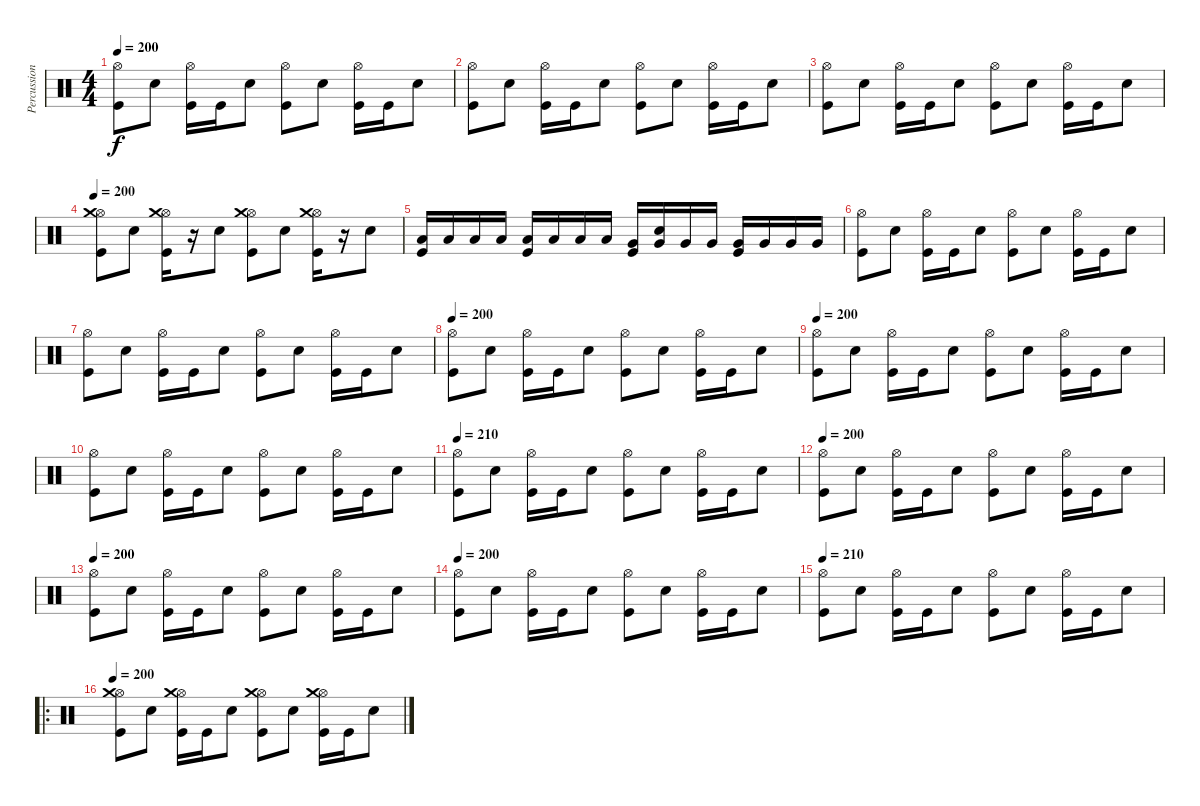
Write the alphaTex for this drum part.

\track ("Percussion" "Percussion") {instrument percussion}
\staff {score}
\articulation defaults
\ts (4 4)
\tempo 200
\clef neutral
\ks c
("Hi-Hat (open)" "Kick (hit)").8{dy f} "Electric Snare (hit)".8 ("Hi-Hat (open)" "Kick (hit)").16 "Kick (hit)".16 "Electric Snare (hit)".8 ("Hi-Hat (open)" "Kick (hit)").8 "Electric Snare (hit)".8 ("Hi-Hat (open)" "Kick (hit)").16 "Kick (hit)".16 "Electric Snare (hit)".8 |
("Hi-Hat (open)" "Kick (hit)").8 "Electric Snare (hit)".8 ("Hi-Hat (open)" "Kick (hit)").16 "Kick (hit)".16 "Electric Snare (hit)".8 ("Hi-Hat (open)" "Kick (hit)").8 "Electric Snare (hit)".8 ("Hi-Hat (open)" "Kick (hit)").16 "Kick (hit)".16 "Electric Snare (hit)".8 |
("Hi-Hat (open)" "Kick (hit)").8 "Electric Snare (hit)".8 ("Hi-Hat (open)" "Kick (hit)").16 "Kick (hit)".16 "Electric Snare (hit)".8 ("Hi-Hat (open)" "Kick (hit)").8 "Electric Snare (hit)".8 ("Hi-Hat (open)" "Kick (hit)").16 "Kick (hit)".16 "Electric Snare (hit)".8 |
\tempo 200
("Hi-Hat (open)" "Kick (hit)" "Crash medium (hit)").8 "Electric Snare (hit)".8 ("Hi-Hat (open)" "Kick (hit)" "Crash medium (hit)").16 r.16 "Electric Snare (hit)".8 ("Hi-Hat (open)" "Kick (hit)" "Crash medium (hit)").8 "Electric Snare (hit)".8 ("Hi-Hat (open)" "Kick (hit)" "Crash medium (hit)").16 r.16 "Electric Snare (hit)".8 |
("Low Tom (hit)" "Kick (hit)").16 "Low Tom (hit)".16 "Low Tom (hit)".16 "Low Tom (hit)".16 ("Low Tom (hit)" "Kick (hit)").16 "Low Tom (hit)".16 "Low Tom (hit)".16 "Low Tom (hit)".16 ("Very Low Tom (hit)" "Kick (hit)").16 ("Very Low Tom (hit)" "Snare (hit)").16 "Very Low Tom (hit)".16 "Very Low Tom (hit)".16 ("Very Low Tom (hit)" "Kick (hit)").16 "Very Low Tom (hit)".16 "Very Low Tom (hit)".16 "Very Low Tom (hit)".16 |
("Hi-Hat (open)" "Kick (hit)").8 "Electric Snare (hit)".8 ("Hi-Hat (open)" "Kick (hit)").16 "Kick (hit)".16 "Electric Snare (hit)".8 ("Hi-Hat (open)" "Kick (hit)").8 "Electric Snare (hit)".8 ("Hi-Hat (open)" "Kick (hit)").16 "Kick (hit)".16 "Electric Snare (hit)".8 |
("Hi-Hat (open)" "Kick (hit)").8 "Electric Snare (hit)".8 ("Hi-Hat (open)" "Kick (hit)").16 "Kick (hit)".16 "Electric Snare (hit)".8 ("Hi-Hat (open)" "Kick (hit)").8 "Electric Snare (hit)".8 ("Hi-Hat (open)" "Kick (hit)").16 "Kick (hit)".16 "Electric Snare (hit)".8 |
\tempo 200
("Hi-Hat (open)" "Kick (hit)").8 "Electric Snare (hit)".8 ("Hi-Hat (open)" "Kick (hit)").16 "Kick (hit)".16 "Electric Snare (hit)".8 ("Hi-Hat (open)" "Kick (hit)").8 "Electric Snare (hit)".8 ("Hi-Hat (open)" "Kick (hit)").16 "Kick (hit)".16 "Electric Snare (hit)".8 |
\tempo 200
("Hi-Hat (open)" "Kick (hit)").8 "Electric Snare (hit)".8 ("Hi-Hat (open)" "Kick (hit)").16 "Kick (hit)".16 "Electric Snare (hit)".8 ("Hi-Hat (open)" "Kick (hit)").8 "Electric Snare (hit)".8 ("Hi-Hat (open)" "Kick (hit)").16 "Kick (hit)".16 "Electric Snare (hit)".8 |
("Hi-Hat (open)" "Kick (hit)").8 "Electric Snare (hit)".8 ("Hi-Hat (open)" "Kick (hit)").16 "Kick (hit)".16 "Electric Snare (hit)".8 ("Hi-Hat (open)" "Kick (hit)").8 "Electric Snare (hit)".8 ("Hi-Hat (open)" "Kick (hit)").16 "Kick (hit)".16 "Electric Snare (hit)".8 |
\tempo 210
("Hi-Hat (open)" "Kick (hit)").8 "Electric Snare (hit)".8 ("Hi-Hat (open)" "Kick (hit)").16 "Kick (hit)".16 "Electric Snare (hit)".8 ("Hi-Hat (open)" "Kick (hit)").8 "Electric Snare (hit)".8 ("Hi-Hat (open)" "Kick (hit)").16 "Kick (hit)".16 "Electric Snare (hit)".8 |
\tempo 200
("Hi-Hat (open)" "Kick (hit)").8 "Electric Snare (hit)".8 ("Hi-Hat (open)" "Kick (hit)").16 "Kick (hit)".16 "Electric Snare (hit)".8 ("Hi-Hat (open)" "Kick (hit)").8 "Electric Snare (hit)".8 ("Hi-Hat (open)" "Kick (hit)").16 "Kick (hit)".16 "Electric Snare (hit)".8 |
\tempo 200
("Hi-Hat (open)" "Kick (hit)").8 "Electric Snare (hit)".8 ("Hi-Hat (open)" "Kick (hit)").16 "Kick (hit)".16 "Electric Snare (hit)".8 ("Hi-Hat (open)" "Kick (hit)").8 "Electric Snare (hit)".8 ("Hi-Hat (open)" "Kick (hit)").16 "Kick (hit)".16 "Electric Snare (hit)".8 |
\tempo 200
("Hi-Hat (open)" "Kick (hit)").8 "Electric Snare (hit)".8 ("Hi-Hat (open)" "Kick (hit)").16 "Kick (hit)".16 "Electric Snare (hit)".8 ("Hi-Hat (open)" "Kick (hit)").8 "Electric Snare (hit)".8 ("Hi-Hat (open)" "Kick (hit)").16 "Kick (hit)".16 "Electric Snare (hit)".8 |
\tempo 210
("Hi-Hat (open)" "Kick (hit)").8 "Electric Snare (hit)".8 ("Hi-Hat (open)" "Kick (hit)").16 "Kick (hit)".16 "Electric Snare (hit)".8 ("Hi-Hat (open)" "Kick (hit)").8 "Electric Snare (hit)".8 ("Hi-Hat (open)" "Kick (hit)").16 "Kick (hit)".16 "Electric Snare (hit)".8 |
\ro
\tempo 200
("Hi-Hat (open)" "Kick (hit)" "Crash medium (hit)").8 "Electric Snare (hit)".8 ("Hi-Hat (open)" "Kick (hit)" "Crash medium (hit)").16 "Kick (hit)".16 "Electric Snare (hit)".8 ("Hi-Hat (open)" "Kick (hit)" "Crash medium (hit)").8 "Electric Snare (hit)".8 ("Hi-Hat (open)" "Kick (hit)" "Crash medium (hit)").16 "Kick (hit)".16 "Electric Snare (hit)".8
